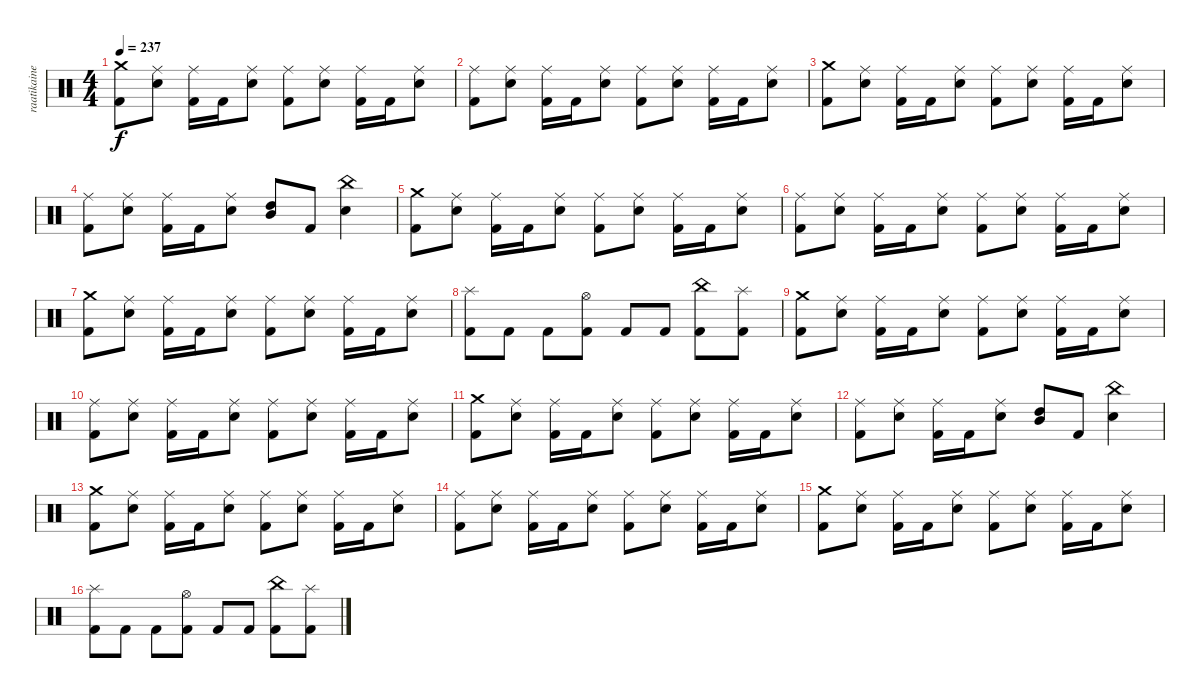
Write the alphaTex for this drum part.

\track ("raatikainen" "raatikaine") {instrument percussion}
\staff {score}
\articulation defaults
\ts (4 4)
\tempo 237
\clef neutral
\ks c
("Crash medium (hit)" "Kick (hit) 2").8{dy f} ("Ride (middle)" "Snare (hit) 2").8 ("Ride (middle)" "Kick (hit) 2").16 "Kick (hit) 2".16 ("Ride (middle)" "Snare (hit) 2").8 ("Ride (middle)" "Kick (hit) 2").8 ("Ride (middle)" "Snare (hit) 2").8 ("Ride (middle)" "Kick (hit) 2").16 "Kick (hit) 2".16 ("Ride (middle)" "Snare (hit) 2").8 |
("Ride (middle)" "Kick (hit) 2").8 ("Ride (middle)" "Snare (hit) 2").8 ("Ride (middle)" "Kick (hit) 2").16 "Kick (hit) 2".16 ("Ride (middle)" "Snare (hit) 2").8 ("Ride (middle)" "Kick (hit) 2").8 ("Ride (middle)" "Snare (hit) 2").8 ("Ride (middle)" "Kick (hit) 2").16 "Kick (hit) 2".16 ("Ride (middle)" "Snare (hit) 2").8 |
("Crash medium (hit)" "Kick (hit) 2").8 ("Ride (middle)" "Snare (hit) 2").8 ("Ride (middle)" "Kick (hit) 2").16 "Kick (hit) 2".16 ("Ride (middle)" "Snare (hit) 2").8 ("Ride (middle)" "Kick (hit) 2").8 ("Ride (middle)" "Snare (hit) 2").8 ("Ride (middle)" "Kick (hit) 2").16 "Kick (hit) 2".16 ("Ride (middle)" "Snare (hit) 2").8 |
("Ride (middle)" "Kick (hit) 2").8 ("Ride (middle)" "Snare (hit) 2").8 ("Ride (middle)" "Kick (hit) 2").16 "Kick (hit) 2".16 ("Ride (middle)" "Snare (hit) 2").8 ("Mid Tom (hit)" "High Tom (hit)").8 "Kick (hit) 2".8 ("China (hit)" "Snare (hit) 2").4 |
("Crash medium (hit)" "Kick (hit) 2").8 ("Ride (middle)" "Snare (hit) 2").8 ("Ride (middle)" "Kick (hit) 2").16 "Kick (hit) 2".16 ("Ride (middle)" "Snare (hit) 2").8 ("Ride (middle)" "Kick (hit) 2").8 ("Ride (middle)" "Snare (hit) 2").8 ("Ride (middle)" "Kick (hit) 2").16 "Kick (hit) 2".16 ("Ride (middle)" "Snare (hit) 2").8 |
("Ride (middle)" "Kick (hit) 2").8 ("Ride (middle)" "Snare (hit) 2").8 ("Ride (middle)" "Kick (hit) 2").16 "Kick (hit) 2".16 ("Ride (middle)" "Snare (hit) 2").8 ("Ride (middle)" "Kick (hit) 2").8 ("Ride (middle)" "Snare (hit) 2").8 ("Ride (middle)" "Kick (hit) 2").16 "Kick (hit) 2".16 ("Ride (middle)" "Snare (hit) 2").8 |
("Crash medium (hit)" "Kick (hit) 2").8 ("Ride (middle)" "Snare (hit) 2").8 ("Ride (middle)" "Kick (hit) 2").16 "Kick (hit) 2".16 ("Ride (middle)" "Snare (hit) 2").8 ("Ride (middle)" "Kick (hit) 2").8 ("Ride (middle)" "Snare (hit) 2").8 ("Ride (middle)" "Kick (hit) 2").16 "Kick (hit) 2".16 ("Ride (middle)" "Snare (hit) 2").8 |
("Splash (hit)" "Kick (hit) 2").8 "Kick (hit) 2".8 "Kick (hit) 2".8 ("Hi-Hat (open)" "Kick (hit) 2").8 "Kick (hit) 2".8 "Kick (hit) 2".8 ("China (hit)" "Kick (hit) 2").8 ("Splash (hit)" "Kick (hit) 2").8 |
("Crash medium (hit)" "Kick (hit) 2").8 ("Ride (middle)" "Snare (hit) 2").8 ("Ride (middle)" "Kick (hit) 2").16 "Kick (hit) 2".16 ("Ride (middle)" "Snare (hit) 2").8 ("Ride (middle)" "Kick (hit) 2").8 ("Ride (middle)" "Snare (hit) 2").8 ("Ride (middle)" "Kick (hit) 2").16 "Kick (hit) 2".16 ("Ride (middle)" "Snare (hit) 2").8 |
("Ride (middle)" "Kick (hit) 2").8 ("Ride (middle)" "Snare (hit) 2").8 ("Ride (middle)" "Kick (hit) 2").16 "Kick (hit) 2".16 ("Ride (middle)" "Snare (hit) 2").8 ("Ride (middle)" "Kick (hit) 2").8 ("Ride (middle)" "Snare (hit) 2").8 ("Ride (middle)" "Kick (hit) 2").16 "Kick (hit) 2".16 ("Ride (middle)" "Snare (hit) 2").8 |
("Crash medium (hit)" "Kick (hit) 2").8 ("Ride (middle)" "Snare (hit) 2").8 ("Ride (middle)" "Kick (hit) 2").16 "Kick (hit) 2".16 ("Ride (middle)" "Snare (hit) 2").8 ("Ride (middle)" "Kick (hit) 2").8 ("Ride (middle)" "Snare (hit) 2").8 ("Ride (middle)" "Kick (hit) 2").16 "Kick (hit) 2".16 ("Ride (middle)" "Snare (hit) 2").8 |
("Ride (middle)" "Kick (hit) 2").8 ("Ride (middle)" "Snare (hit) 2").8 ("Ride (middle)" "Kick (hit) 2").16 "Kick (hit) 2".16 ("Ride (middle)" "Snare (hit) 2").8 ("Mid Tom (hit)" "High Tom (hit)").8 "Kick (hit) 2".8 ("China (hit)" "Snare (hit) 2").4 |
("Crash medium (hit)" "Kick (hit) 2").8 ("Ride (middle)" "Snare (hit) 2").8 ("Ride (middle)" "Kick (hit) 2").16 "Kick (hit) 2".16 ("Ride (middle)" "Snare (hit) 2").8 ("Ride (middle)" "Kick (hit) 2").8 ("Ride (middle)" "Snare (hit) 2").8 ("Ride (middle)" "Kick (hit) 2").16 "Kick (hit) 2".16 ("Ride (middle)" "Snare (hit) 2").8 |
("Ride (middle)" "Kick (hit) 2").8 ("Ride (middle)" "Snare (hit) 2").8 ("Ride (middle)" "Kick (hit) 2").16 "Kick (hit) 2".16 ("Ride (middle)" "Snare (hit) 2").8 ("Ride (middle)" "Kick (hit) 2").8 ("Ride (middle)" "Snare (hit) 2").8 ("Ride (middle)" "Kick (hit) 2").16 "Kick (hit) 2".16 ("Ride (middle)" "Snare (hit) 2").8 |
("Crash medium (hit)" "Kick (hit) 2").8 ("Ride (middle)" "Snare (hit) 2").8 ("Ride (middle)" "Kick (hit) 2").16 "Kick (hit) 2".16 ("Ride (middle)" "Snare (hit) 2").8 ("Ride (middle)" "Kick (hit) 2").8 ("Ride (middle)" "Snare (hit) 2").8 ("Ride (middle)" "Kick (hit) 2").16 "Kick (hit) 2".16 ("Ride (middle)" "Snare (hit) 2").8 |
("Splash (hit)" "Kick (hit) 2").8 "Kick (hit) 2".8 "Kick (hit) 2".8 ("Hi-Hat (open)" "Kick (hit) 2").8 "Kick (hit) 2".8 "Kick (hit) 2".8 ("China (hit)" "Kick (hit) 2").8 ("Splash (hit)" "Kick (hit) 2").8
